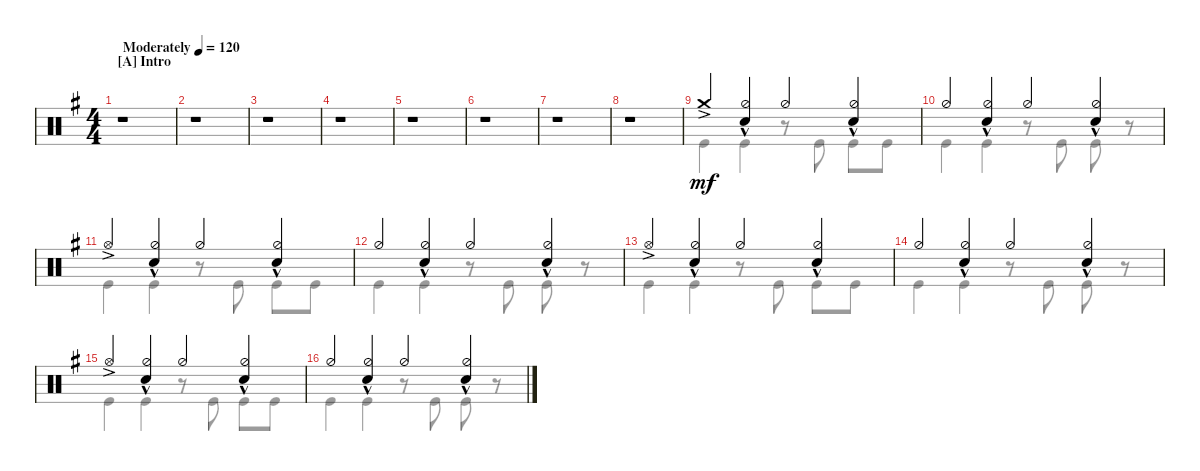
\defaultSystemsLayout 4
\bracketExtendMode groupsimilarinstruments
\singleTrackTrackNamePolicy hidden
\multiTrackTrackNamePolicy hidden
\firstSystemTrackNameOrientation horizontal
\otherSystemsTrackNameOrientation horizontal
\track ("Maksim Udalov" "Drums") {instrument percussion}
\staff {score}
\articulation defaults
\voice
\ts (4 4)
\section ("A" "Intro")
\tempo (120 "Moderately")
\clef neutral
\scale
1.05675
\ks g
r.1{dy mf} |
\scale
0.943253 r.1 |
\scale
1.02648 r.1 |
\scale
0.973518 r.1 |
\scale
1.02648 r.1 |
\scale
0.973518 r.1 |
\scale
1.02648 r.1 |
\scale
0.973518 r.1 |
\scale
1.02648 "Crash medium (hit)"{ac}.4 ("Snare (hit) 2"{hac} "Hi-Hat (half)").4 "Hi-Hat (half)".4 ("Snare (hit) 2"{hac} "Hi-Hat (half)").4 |
\scale
0.973518 "Hi-Hat (half)".4 ("Snare (hit) 2"{hac} "Hi-Hat (half)").4 "Hi-Hat (half)".4 ("Snare (hit) 2"{hac} "Hi-Hat (half)").4 |
\scale
1.02648 "Hi-Hat (open)"{ac}.4 ("Snare (hit) 2"{hac} "Hi-Hat (half)").4 "Hi-Hat (half)".4 ("Snare (hit) 2"{hac} "Hi-Hat (half)").4 |
\scale
0.973518 "Hi-Hat (half)".4 ("Snare (hit) 2"{hac} "Hi-Hat (half)").4 "Hi-Hat (half)".4 ("Snare (hit) 2"{hac} "Hi-Hat (half)").4 |
\scale
1.02648 "Hi-Hat (open)"{ac}.4 ("Snare (hit) 2"{hac} "Hi-Hat (half)").4 "Hi-Hat (half)".4 ("Snare (hit) 2"{hac} "Hi-Hat (half)").4 |
\scale
0.973518 "Hi-Hat (half)".4 ("Snare (hit) 2"{hac} "Hi-Hat (half)").4 "Hi-Hat (half)".4 ("Snare (hit) 2"{hac} "Hi-Hat (half)").4 |
\scale
1.02648 "Hi-Hat (open)"{ac}.4 ("Snare (hit) 2"{hac} "Hi-Hat (half)").4 "Hi-Hat (half)".4 ("Snare (hit) 2"{hac} "Hi-Hat (half)").4 |
\scale
0.973518 "Hi-Hat (half)".4 ("Snare (hit) 2"{hac} "Hi-Hat (half)").4 "Hi-Hat (half)".4 ("Snare (hit) 2"{hac} "Hi-Hat (half)").4
\voice
\clef neutral
\ottava regular
\simile none
\scale
1.05675
\ks g
|
\scale
0.943253 |
\scale
1.02648 |
\scale
0.973518 |
\scale
1.02648 |
\scale
0.973518 |
\scale
1.02648 |
\scale
0.973518 |
\scale
1.02648 "Kick (hit)".4 "Kick (hit)".4 r.8 "Kick (hit)".8 "Kick (hit)".8 "Kick (hit)".8 |
\scale
0.973518 "Kick (hit)".4 "Kick (hit)".4 r.8 "Kick (hit)".8 "Kick (hit)".8 r.8 |
\scale
1.02648 "Kick (hit)".4 "Kick (hit)".4 r.8 "Kick (hit)".8 "Kick (hit)".8 "Kick (hit)".8 |
\scale
0.973518 "Kick (hit)".4 "Kick (hit)".4 r.8 "Kick (hit)".8 "Kick (hit)".8 r.8 |
\scale
1.02648 "Kick (hit)".4 "Kick (hit)".4 r.8 "Kick (hit)".8 "Kick (hit)".8 "Kick (hit)".8 |
\scale
0.973518 "Kick (hit)".4 "Kick (hit)".4 r.8 "Kick (hit)".8 "Kick (hit)".8 r.8 |
\scale
1.02648 "Kick (hit)".4 "Kick (hit)".4 r.8 "Kick (hit)".8 "Kick (hit)".8 "Kick (hit)".8 |
\scale
0.973518 "Kick (hit)".4 "Kick (hit)".4 r.8 "Kick (hit)".8 "Kick (hit)".8 r.8
